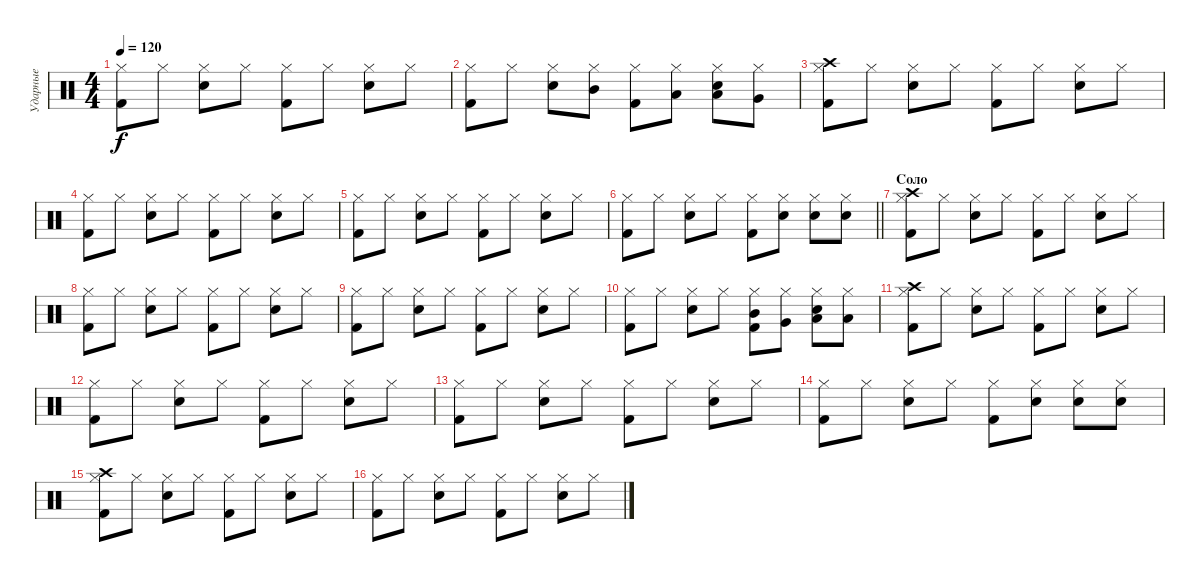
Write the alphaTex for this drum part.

\track ("Ударные" "Ударные") {instrument percussion}
\staff {score}
\articulation defaults
\ts (4 4)
\tempo 120
\clef neutral
\ks c
("Hi-Hat (closed)" "Kick (hit) 2").8{dy f} "Hi-Hat (closed)".8 ("Hi-Hat (closed)" "Snare (hit) 2").8 "Hi-Hat (closed)".8 ("Hi-Hat (closed)" "Kick (hit) 2").8 "Hi-Hat (closed)".8 ("Hi-Hat (closed)" "Snare (hit) 2").8 "Hi-Hat (closed)".8 |
("Hi-Hat (closed)" "Kick (hit) 2").8 "Hi-Hat (closed)".8 ("Hi-Hat (closed)" "Snare (hit) 2").8 ("Hi-Hat (closed)" "Mid Tom (hit)").8 ("Hi-Hat (closed)" "Kick (hit) 2").8 ("Hi-Hat (closed)" "Low Tom (hit)").8 ("Hi-Hat (closed)" "Low Floor Tom (hit)" "Snare (hit) 2").8 ("Hi-Hat (closed)" "Very Low Tom (hit)").8 |
("Hi-Hat (closed)" "Kick (hit) 2" "Crash high (hit)").8 "Hi-Hat (closed)".8 ("Hi-Hat (closed)" "Snare (hit) 2").8 "Hi-Hat (closed)".8 ("Hi-Hat (closed)" "Kick (hit) 2").8 "Hi-Hat (closed)".8 ("Hi-Hat (closed)" "Snare (hit) 2").8 "Hi-Hat (closed)".8 |
("Hi-Hat (closed)" "Kick (hit) 2").8 "Hi-Hat (closed)".8 ("Hi-Hat (closed)" "Snare (hit) 2").8 "Hi-Hat (closed)".8 ("Hi-Hat (closed)" "Kick (hit) 2").8 "Hi-Hat (closed)".8 ("Hi-Hat (closed)" "Snare (hit) 2").8 "Hi-Hat (closed)".8 |
("Hi-Hat (closed)" "Kick (hit) 2").8 "Hi-Hat (closed)".8 ("Hi-Hat (closed)" "Snare (hit) 2").8 "Hi-Hat (closed)".8 ("Hi-Hat (closed)" "Kick (hit) 2").8 "Hi-Hat (closed)".8 ("Hi-Hat (closed)" "Snare (hit) 2").8 "Hi-Hat (closed)".8 |
\barLineRight lightlight
("Hi-Hat (closed)" "Kick (hit) 2").8 "Hi-Hat (closed)".8 ("Hi-Hat (closed)" "Snare (hit) 2").8 "Hi-Hat (closed)".8 ("Hi-Hat (closed)" "Kick (hit) 2").8 ("Hi-Hat (closed)" "Snare (hit) 2").8 ("Hi-Hat (closed)" "Snare (hit) 2").8 ("Hi-Hat (closed)" "Snare (hit) 2").8 |
\section ("" "Соло")
("Hi-Hat (closed)" "Kick (hit) 2" "Crash high (hit)").8 "Hi-Hat (closed)".8 ("Hi-Hat (closed)" "Snare (hit) 2").8 "Hi-Hat (closed)".8 ("Hi-Hat (closed)" "Kick (hit) 2").8 "Hi-Hat (closed)".8 ("Hi-Hat (closed)" "Snare (hit) 2").8 "Hi-Hat (closed)".8 |
("Hi-Hat (closed)" "Kick (hit) 2").8 "Hi-Hat (closed)".8 ("Hi-Hat (closed)" "Snare (hit) 2").8 "Hi-Hat (closed)".8 ("Hi-Hat (closed)" "Kick (hit) 2").8 "Hi-Hat (closed)".8 ("Hi-Hat (closed)" "Snare (hit) 2").8 "Hi-Hat (closed)".8 |
("Hi-Hat (closed)" "Kick (hit) 2").8 "Hi-Hat (closed)".8 ("Hi-Hat (closed)" "Snare (hit) 2").8 "Hi-Hat (closed)".8 ("Hi-Hat (closed)" "Kick (hit) 2").8 "Hi-Hat (closed)".8 ("Hi-Hat (closed)" "Snare (hit) 2").8 "Hi-Hat (closed)".8 |
("Hi-Hat (closed)" "Kick (hit) 2").8 "Hi-Hat (closed)".8 ("Hi-Hat (closed)" "Snare (hit) 2").8 "Hi-Hat (closed)".8 ("Hi-Hat (closed)" "Kick (hit) 2" "Mid Tom (hit)").8 ("Hi-Hat (closed)" "Very Low Tom (hit)").8 ("Hi-Hat (closed)" "Low Floor Tom (hit)" "Snare (hit) 2").8 ("Hi-Hat (closed)" "Low Tom (hit)").8 |
("Hi-Hat (closed)" "Kick (hit) 2" "Crash high (hit)").8 "Hi-Hat (closed)".8 ("Hi-Hat (closed)" "Snare (hit) 2").8 "Hi-Hat (closed)".8 ("Hi-Hat (closed)" "Kick (hit) 2").8 "Hi-Hat (closed)".8 ("Hi-Hat (closed)" "Snare (hit) 2").8 "Hi-Hat (closed)".8 |
("Hi-Hat (closed)" "Kick (hit) 2").8 "Hi-Hat (closed)".8 ("Hi-Hat (closed)" "Snare (hit) 2").8 "Hi-Hat (closed)".8 ("Hi-Hat (closed)" "Kick (hit) 2").8 "Hi-Hat (closed)".8 ("Hi-Hat (closed)" "Snare (hit) 2").8 "Hi-Hat (closed)".8 |
("Hi-Hat (closed)" "Kick (hit) 2").8 "Hi-Hat (closed)".8 ("Hi-Hat (closed)" "Snare (hit) 2").8 "Hi-Hat (closed)".8 ("Hi-Hat (closed)" "Kick (hit) 2").8 "Hi-Hat (closed)".8 ("Hi-Hat (closed)" "Snare (hit) 2").8 "Hi-Hat (closed)".8 |
("Hi-Hat (closed)" "Kick (hit) 2").8 "Hi-Hat (closed)".8 ("Hi-Hat (closed)" "Snare (hit) 2").8 "Hi-Hat (closed)".8 ("Hi-Hat (closed)" "Kick (hit) 2").8 ("Hi-Hat (closed)" "Snare (hit) 2").8 ("Hi-Hat (closed)" "Snare (hit) 2").8 ("Hi-Hat (closed)" "Snare (hit) 2").8 |
("Hi-Hat (closed)" "Kick (hit) 2" "Crash high (hit)").8 "Hi-Hat (closed)".8 ("Hi-Hat (closed)" "Snare (hit) 2").8 "Hi-Hat (closed)".8 ("Hi-Hat (closed)" "Kick (hit) 2").8 "Hi-Hat (closed)".8 ("Hi-Hat (closed)" "Snare (hit) 2").8 "Hi-Hat (closed)".8 |
("Hi-Hat (closed)" "Kick (hit) 2").8 "Hi-Hat (closed)".8 ("Hi-Hat (closed)" "Snare (hit) 2").8 "Hi-Hat (closed)".8 ("Hi-Hat (closed)" "Kick (hit) 2").8 "Hi-Hat (closed)".8 ("Hi-Hat (closed)" "Snare (hit) 2").8 "Hi-Hat (closed)".8
